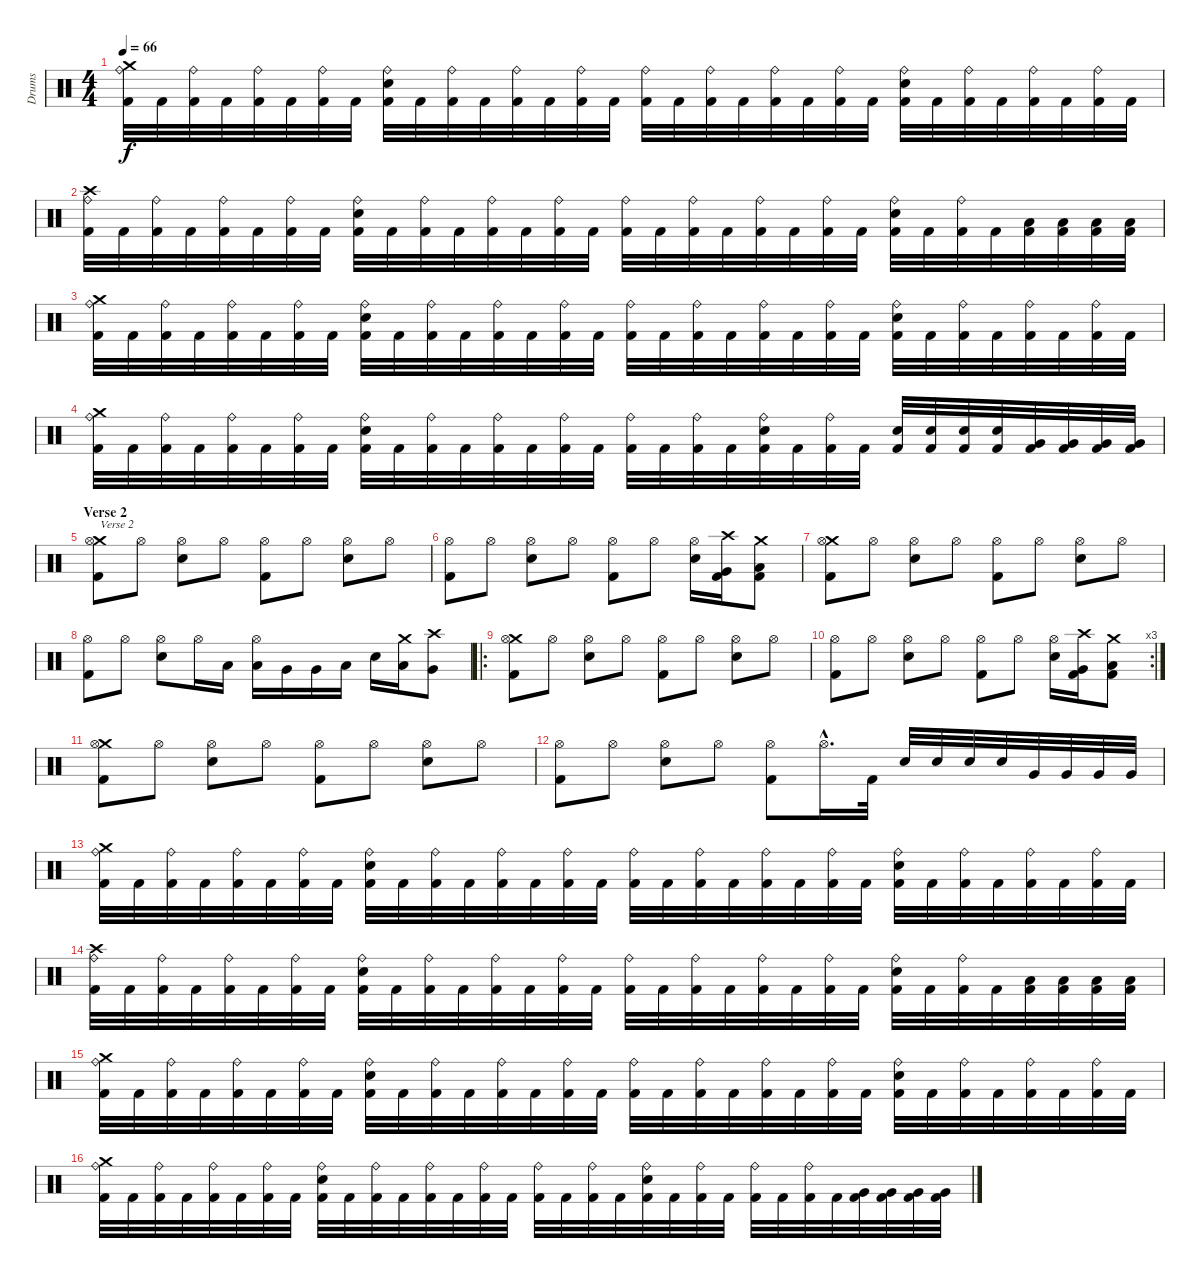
\track ("Drums" "Drums") {instrument percussion}
\staff {score}
\articulation defaults
\ts (4 4)
\tempo 66
\clef neutral
\ks c
("Crash medium (hit)" "Ride (bell)" "Kick (hit) 2").32{dy f} "Kick (hit) 2".32 ("Ride (bell)" "Kick (hit) 2").32 "Kick (hit) 2".32 ("Ride (bell)" "Kick (hit) 2").32 "Kick (hit) 2".32 ("Ride (bell)" "Kick (hit) 2").32 "Kick (hit) 2".32 ("Ride (bell)" "Electric Snare (hit)" "Kick (hit) 2").32 "Kick (hit) 2".32 ("Ride (bell)" "Kick (hit) 2").32 "Kick (hit) 2".32 ("Ride (bell)" "Kick (hit) 2").32 "Kick (hit) 2".32 ("Ride (bell)" "Kick (hit) 2").32 "Kick (hit) 2".32 ("Ride (bell)" "Kick (hit) 2").32 "Kick (hit) 2".32 ("Ride (bell)" "Kick (hit) 2").32 "Kick (hit) 2".32 ("Ride (bell)" "Kick (hit) 2").32 "Kick (hit) 2".32 ("Ride (bell)" "Kick (hit) 2").32 "Kick (hit) 2".32 ("Ride (bell)" "Electric Snare (hit)" "Kick (hit) 2").32 "Kick (hit) 2".32 ("Ride (bell)" "Kick (hit) 2").32 "Kick (hit) 2".32 ("Ride (bell)" "Kick (hit) 2").32 "Kick (hit) 2".32 ("Ride (bell)" "Kick (hit) 2").32 "Kick (hit) 2".32 |
("Crash high (hit)" "Ride (bell)" "Kick (hit) 2").32 "Kick (hit) 2".32 ("Ride (bell)" "Kick (hit) 2").32 "Kick (hit) 2".32 ("Ride (bell)" "Kick (hit) 2").32 "Kick (hit) 2".32 ("Ride (bell)" "Kick (hit) 2").32 "Kick (hit) 2".32 ("Ride (bell)" "Electric Snare (hit)" "Kick (hit) 2").32 "Kick (hit) 2".32 ("Ride (bell)" "Kick (hit) 2").32 "Kick (hit) 2".32 ("Ride (bell)" "Kick (hit) 2").32 "Kick (hit) 2".32 ("Ride (bell)" "Kick (hit) 2").32 "Kick (hit) 2".32 ("Ride (bell)" "Kick (hit) 2").32 "Kick (hit) 2".32 ("Ride (bell)" "Kick (hit) 2").32 "Kick (hit) 2".32 ("Ride (bell)" "Kick (hit) 2").32 "Kick (hit) 2".32 ("Ride (bell)" "Kick (hit) 2").32 "Kick (hit) 2".32 ("Ride (bell)" "Electric Snare (hit)" "Kick (hit) 2").32 "Kick (hit) 2".32 ("Ride (bell)" "Kick (hit) 2").32 "Kick (hit) 2".32 ("Low Floor Tom (hit)" "Kick (hit) 2").32 ("Low Floor Tom (hit)" "Kick (hit) 2").32 ("Low Floor Tom (hit)" "Kick (hit) 2").32 ("Low Floor Tom (hit)" "Kick (hit) 2").32 |
("Crash medium (hit)" "Ride (bell)" "Kick (hit) 2").32 "Kick (hit) 2".32 ("Ride (bell)" "Kick (hit) 2").32 "Kick (hit) 2".32 ("Ride (bell)" "Kick (hit) 2").32 "Kick (hit) 2".32 ("Ride (bell)" "Kick (hit) 2").32 "Kick (hit) 2".32 ("Ride (bell)" "Electric Snare (hit)" "Kick (hit) 2").32 "Kick (hit) 2".32 ("Ride (bell)" "Kick (hit) 2").32 "Kick (hit) 2".32 ("Ride (bell)" "Kick (hit) 2").32 "Kick (hit) 2".32 ("Ride (bell)" "Kick (hit) 2").32 "Kick (hit) 2".32 ("Ride (bell)" "Kick (hit) 2").32 "Kick (hit) 2".32 ("Ride (bell)" "Kick (hit) 2").32 "Kick (hit) 2".32 ("Ride (bell)" "Kick (hit) 2").32 "Kick (hit) 2".32 ("Ride (bell)" "Kick (hit) 2").32 "Kick (hit) 2".32 ("Ride (bell)" "Electric Snare (hit)" "Kick (hit) 2").32 "Kick (hit) 2".32 ("Ride (bell)" "Kick (hit) 2").32 "Kick (hit) 2".32 ("Ride (bell)" "Kick (hit) 2").32 "Kick (hit) 2".32 ("Ride (bell)" "Kick (hit) 2").32 "Kick (hit) 2".32 |
("Crash medium (hit)" "Ride (bell)" "Kick (hit) 2").32 "Kick (hit) 2".32 ("Ride (bell)" "Kick (hit) 2").32 "Kick (hit) 2".32 ("Ride (bell)" "Kick (hit) 2").32 "Kick (hit) 2".32 ("Ride (bell)" "Kick (hit) 2").32 "Kick (hit) 2".32 ("Ride (bell)" "Electric Snare (hit)" "Kick (hit) 2").32 "Kick (hit) 2".32 ("Ride (bell)" "Kick (hit) 2").32 "Kick (hit) 2".32 ("Ride (bell)" "Kick (hit) 2").32 "Kick (hit) 2".32 ("Ride (bell)" "Kick (hit) 2").32 "Kick (hit) 2".32 ("Ride (bell)" "Kick (hit) 2").32 "Kick (hit) 2".32 ("Ride (bell)" "Kick (hit) 2").32 "Kick (hit) 2".32 ("Ride (bell)" "Electric Snare (hit)" "Kick (hit) 2").32 "Kick (hit) 2".32 ("Ride (bell)" "Kick (hit) 2").32 "Kick (hit) 2".32 ("Electric Snare (hit)" "Kick (hit) 2").32 ("Electric Snare (hit)" "Kick (hit) 2").32 ("Electric Snare (hit)" "Kick (hit) 2").32 ("Electric Snare (hit)" "Kick (hit) 2").32 ("Very Low Tom (hit)" "Kick (hit) 2").32 ("Very Low Tom (hit)" "Kick (hit) 2").32 ("Very Low Tom (hit)" "Kick (hit) 2").32 ("Very Low Tom (hit)" "Kick (hit) 2").32 |
\section ("" "Verse 2")
("Crash medium (hit)" "Hi-Hat (open)" "Kick (hit) 2").8{txt "Verse 2"} "Hi-Hat (open)".8 ("Hi-Hat (open)" "Electric Snare (hit)").8 "Hi-Hat (open)".8 ("Hi-Hat (open)" "Kick (hit) 2").8 "Hi-Hat (open)".8 ("Hi-Hat (open)" "Electric Snare (hit)").8 "Hi-Hat (open)".8 |
("Hi-Hat (open)" "Kick (hit) 2").8 "Hi-Hat (open)".8 ("Hi-Hat (open)" "Electric Snare (hit)").8 "Hi-Hat (open)".8 ("Hi-Hat (open)" "Kick (hit) 2").8 "Hi-Hat (open)".8 ("Hi-Hat (open)" "Electric Snare (hit)").16 ("Crash high (hit)" "Very Low Tom (hit)" "Kick (hit) 2").16 ("Crash medium (hit)" "Low Floor Tom (hit)" "Kick (hit) 2").8 |
("Crash medium (hit)" "Hi-Hat (open)" "Kick (hit) 2").8 "Hi-Hat (open)".8 ("Hi-Hat (open)" "Electric Snare (hit)").8 "Hi-Hat (open)".8 ("Hi-Hat (open)" "Kick (hit) 2").8 "Hi-Hat (open)".8 ("Hi-Hat (open)" "Electric Snare (hit)").8 "Hi-Hat (open)".8 |
("Hi-Hat (open)" "Kick (hit) 2").8 "Hi-Hat (open)".8 ("Hi-Hat (open)" "Electric Snare (hit)").8 "Hi-Hat (open)".16 "Low Floor Tom (hit)".16 ("Hi-Hat (open)" "Low Floor Tom (hit)").16 "Very Low Tom (hit)".16 "Very Low Tom (hit)".16 "Low Tom (hit)".16 "Electric Snare (hit)".16 ("Crash medium (hit)" "Low Tom (hit)").16 ("Crash high (hit)" "Very Low Tom (hit)").8 |
\ro
("Crash medium (hit)" "Hi-Hat (open)" "Kick (hit) 2").8 "Hi-Hat (open)".8 ("Hi-Hat (open)" "Electric Snare (hit)").8 "Hi-Hat (open)".8 ("Hi-Hat (open)" "Kick (hit) 2").8 "Hi-Hat (open)".8 ("Hi-Hat (open)" "Electric Snare (hit)").8 "Hi-Hat (open)".8 |
\rc 3
("Hi-Hat (open)" "Kick (hit) 2").8 "Hi-Hat (open)".8 ("Hi-Hat (open)" "Electric Snare (hit)").8 "Hi-Hat (open)".8 ("Hi-Hat (open)" "Kick (hit) 2").8 "Hi-Hat (open)".8 ("Hi-Hat (open)" "Electric Snare (hit)").16 ("Crash high (hit)" "Very Low Tom (hit)" "Kick (hit) 2").16 ("Crash medium (hit)" "Low Floor Tom (hit)" "Kick (hit) 2").8 |
("Crash medium (hit)" "Hi-Hat (open)" "Kick (hit) 2").8 "Hi-Hat (open)".8 ("Hi-Hat (open)" "Electric Snare (hit)").8 "Hi-Hat (open)".8 ("Hi-Hat (open)" "Kick (hit) 2").8 "Hi-Hat (open)".8 ("Hi-Hat (open)" "Electric Snare (hit)").8 "Hi-Hat (open)".8 |
("Hi-Hat (open)" "Kick (hit) 2").8 "Hi-Hat (open)".8 ("Hi-Hat (open)" "Electric Snare (hit)").8 "Hi-Hat (open)".8 ("Hi-Hat (open)" "Kick (hit) 2").8 "Hi-Hat (open)"{hac}.16{d} "Kick (hit) 2".32 "Electric Snare (hit)".32 "Electric Snare (hit)".32 "Electric Snare (hit)".32 "Electric Snare (hit)".32 "Very Low Tom (hit)".32 "Very Low Tom (hit)".32 "Very Low Tom (hit)".32 "Very Low Tom (hit)".32 |
("Crash medium (hit)" "Ride (bell)" "Kick (hit) 2").32 "Kick (hit) 2".32 ("Ride (bell)" "Kick (hit) 2").32 "Kick (hit) 2".32 ("Ride (bell)" "Kick (hit) 2").32 "Kick (hit) 2".32 ("Ride (bell)" "Kick (hit) 2").32 "Kick (hit) 2".32 ("Ride (bell)" "Electric Snare (hit)" "Kick (hit) 2").32 "Kick (hit) 2".32 ("Ride (bell)" "Kick (hit) 2").32 "Kick (hit) 2".32 ("Ride (bell)" "Kick (hit) 2").32 "Kick (hit) 2".32 ("Ride (bell)" "Kick (hit) 2").32 "Kick (hit) 2".32 ("Ride (bell)" "Kick (hit) 2").32 "Kick (hit) 2".32 ("Ride (bell)" "Kick (hit) 2").32 "Kick (hit) 2".32 ("Ride (bell)" "Kick (hit) 2").32 "Kick (hit) 2".32 ("Ride (bell)" "Kick (hit) 2").32 "Kick (hit) 2".32 ("Ride (bell)" "Electric Snare (hit)" "Kick (hit) 2").32 "Kick (hit) 2".32 ("Ride (bell)" "Kick (hit) 2").32 "Kick (hit) 2".32 ("Ride (bell)" "Kick (hit) 2").32 "Kick (hit) 2".32 ("Ride (bell)" "Kick (hit) 2").32 "Kick (hit) 2".32 |
("Crash high (hit)" "Ride (bell)" "Kick (hit) 2").32 "Kick (hit) 2".32 ("Ride (bell)" "Kick (hit) 2").32 "Kick (hit) 2".32 ("Ride (bell)" "Kick (hit) 2").32 "Kick (hit) 2".32 ("Ride (bell)" "Kick (hit) 2").32 "Kick (hit) 2".32 ("Ride (bell)" "Electric Snare (hit)" "Kick (hit) 2").32 "Kick (hit) 2".32 ("Ride (bell)" "Kick (hit) 2").32 "Kick (hit) 2".32 ("Ride (bell)" "Kick (hit) 2").32 "Kick (hit) 2".32 ("Ride (bell)" "Kick (hit) 2").32 "Kick (hit) 2".32 ("Ride (bell)" "Kick (hit) 2").32 "Kick (hit) 2".32 ("Ride (bell)" "Kick (hit) 2").32 "Kick (hit) 2".32 ("Ride (bell)" "Kick (hit) 2").32 "Kick (hit) 2".32 ("Ride (bell)" "Kick (hit) 2").32 "Kick (hit) 2".32 ("Ride (bell)" "Electric Snare (hit)" "Kick (hit) 2").32 "Kick (hit) 2".32 ("Ride (bell)" "Kick (hit) 2").32 "Kick (hit) 2".32 ("Low Floor Tom (hit)" "Kick (hit) 2").32 ("Low Floor Tom (hit)" "Kick (hit) 2").32 ("Low Floor Tom (hit)" "Kick (hit) 2").32 ("Low Floor Tom (hit)" "Kick (hit) 2").32 |
("Crash medium (hit)" "Ride (bell)" "Kick (hit) 2").32 "Kick (hit) 2".32 ("Ride (bell)" "Kick (hit) 2").32 "Kick (hit) 2".32 ("Ride (bell)" "Kick (hit) 2").32 "Kick (hit) 2".32 ("Ride (bell)" "Kick (hit) 2").32 "Kick (hit) 2".32 ("Ride (bell)" "Electric Snare (hit)" "Kick (hit) 2").32 "Kick (hit) 2".32 ("Ride (bell)" "Kick (hit) 2").32 "Kick (hit) 2".32 ("Ride (bell)" "Kick (hit) 2").32 "Kick (hit) 2".32 ("Ride (bell)" "Kick (hit) 2").32 "Kick (hit) 2".32 ("Ride (bell)" "Kick (hit) 2").32 "Kick (hit) 2".32 ("Ride (bell)" "Kick (hit) 2").32 "Kick (hit) 2".32 ("Ride (bell)" "Kick (hit) 2").32 "Kick (hit) 2".32 ("Ride (bell)" "Kick (hit) 2").32 "Kick (hit) 2".32 ("Ride (bell)" "Electric Snare (hit)" "Kick (hit) 2").32 "Kick (hit) 2".32 ("Ride (bell)" "Kick (hit) 2").32 "Kick (hit) 2".32 ("Ride (bell)" "Kick (hit) 2").32 "Kick (hit) 2".32 ("Ride (bell)" "Kick (hit) 2").32 "Kick (hit) 2".32 |
("Crash medium (hit)" "Ride (bell)" "Kick (hit) 2").32 "Kick (hit) 2".32 ("Ride (bell)" "Kick (hit) 2").32 "Kick (hit) 2".32 ("Ride (bell)" "Kick (hit) 2").32 "Kick (hit) 2".32 ("Ride (bell)" "Kick (hit) 2").32 "Kick (hit) 2".32 ("Ride (bell)" "Electric Snare (hit)" "Kick (hit) 2").32 "Kick (hit) 2".32 ("Ride (bell)" "Kick (hit) 2").32 "Kick (hit) 2".32 ("Ride (bell)" "Kick (hit) 2").32 "Kick (hit) 2".32 ("Ride (bell)" "Kick (hit) 2").32 "Kick (hit) 2".32 ("Ride (bell)" "Kick (hit) 2").32 "Kick (hit) 2".32 ("Ride (bell)" "Kick (hit) 2").32 "Kick (hit) 2".32 ("Ride (bell)" "Electric Snare (hit)" "Kick (hit) 2").32 "Kick (hit) 2".32 ("Ride (bell)" "Kick (hit) 2").32 "Kick (hit) 2".32 ("Ride (bell)" "Kick (hit) 2").32 "Kick (hit) 2".32 ("Ride (bell)" "Kick (hit) 2").32 "Kick (hit) 2".32 ("Very Low Tom (hit)" "Kick (hit) 2").32 ("Very Low Tom (hit)" "Kick (hit) 2").32 ("Very Low Tom (hit)" "Kick (hit) 2").32 ("Very Low Tom (hit)" "Kick (hit) 2").32
